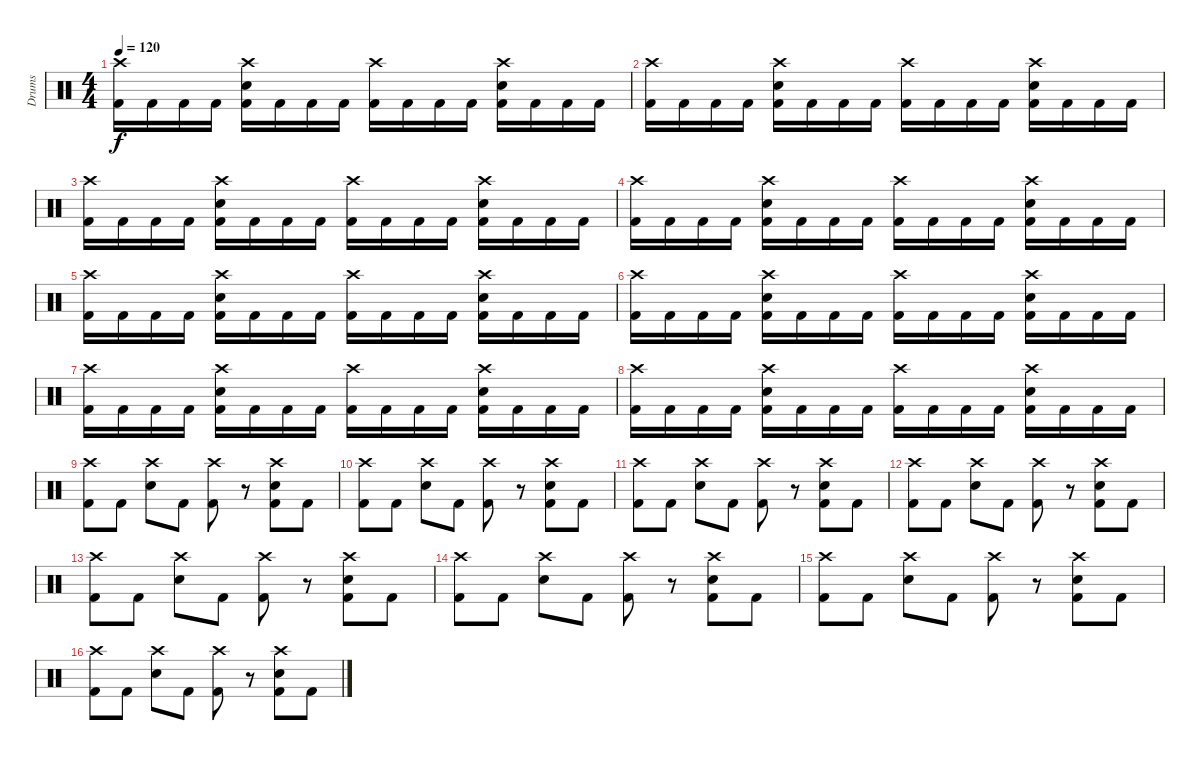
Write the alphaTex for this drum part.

\track ("Drums" "Drums") {instrument percussion}
\staff {score}
\articulation defaults
\ts (4 4)
\tempo 120
\clef neutral
\ks c
("Crash high (hit)" "Kick (hit) 2").16{dy f} "Kick (hit) 2".16 "Kick (hit) 2".16 "Kick (hit) 2".16 ("Crash high (hit)" "Snare (hit) 2" "Kick (hit) 2").16 "Kick (hit) 2".16 "Kick (hit) 2".16 "Kick (hit) 2".16 ("Crash high (hit)" "Kick (hit) 2").16 "Kick (hit) 2".16 "Kick (hit) 2".16 "Kick (hit) 2".16 ("Crash high (hit)" "Snare (hit) 2" "Kick (hit) 2").16 "Kick (hit) 2".16 "Kick (hit) 2".16 "Kick (hit) 2".16 |
("Crash high (hit)" "Kick (hit) 2").16 "Kick (hit) 2".16 "Kick (hit) 2".16 "Kick (hit) 2".16 ("Crash high (hit)" "Snare (hit) 2" "Kick (hit) 2").16 "Kick (hit) 2".16 "Kick (hit) 2".16 "Kick (hit) 2".16 ("Crash high (hit)" "Kick (hit) 2").16 "Kick (hit) 2".16 "Kick (hit) 2".16 "Kick (hit) 2".16 ("Crash high (hit)" "Snare (hit) 2" "Kick (hit) 2").16 "Kick (hit) 2".16 "Kick (hit) 2".16 "Kick (hit) 2".16 |
("Crash high (hit)" "Kick (hit) 2").16 "Kick (hit) 2".16 "Kick (hit) 2".16 "Kick (hit) 2".16 ("Crash high (hit)" "Snare (hit) 2" "Kick (hit) 2").16 "Kick (hit) 2".16 "Kick (hit) 2".16 "Kick (hit) 2".16 ("Crash high (hit)" "Kick (hit) 2").16 "Kick (hit) 2".16 "Kick (hit) 2".16 "Kick (hit) 2".16 ("Crash high (hit)" "Snare (hit) 2" "Kick (hit) 2").16 "Kick (hit) 2".16 "Kick (hit) 2".16 "Kick (hit) 2".16 |
("Crash high (hit)" "Kick (hit) 2").16 "Kick (hit) 2".16 "Kick (hit) 2".16 "Kick (hit) 2".16 ("Crash high (hit)" "Snare (hit) 2" "Kick (hit) 2").16 "Kick (hit) 2".16 "Kick (hit) 2".16 "Kick (hit) 2".16 ("Crash high (hit)" "Kick (hit) 2").16 "Kick (hit) 2".16 "Kick (hit) 2".16 "Kick (hit) 2".16 ("Crash high (hit)" "Snare (hit) 2" "Kick (hit) 2").16 "Kick (hit) 2".16 "Kick (hit) 2".16 "Kick (hit) 2".16 |
("Crash high (hit)" "Kick (hit) 2").16 "Kick (hit) 2".16 "Kick (hit) 2".16 "Kick (hit) 2".16 ("Crash high (hit)" "Snare (hit) 2" "Kick (hit) 2").16 "Kick (hit) 2".16 "Kick (hit) 2".16 "Kick (hit) 2".16 ("Crash high (hit)" "Kick (hit) 2").16 "Kick (hit) 2".16 "Kick (hit) 2".16 "Kick (hit) 2".16 ("Crash high (hit)" "Snare (hit) 2" "Kick (hit) 2").16 "Kick (hit) 2".16 "Kick (hit) 2".16 "Kick (hit) 2".16 |
("Crash high (hit)" "Kick (hit) 2").16 "Kick (hit) 2".16 "Kick (hit) 2".16 "Kick (hit) 2".16 ("Crash high (hit)" "Snare (hit) 2" "Kick (hit) 2").16 "Kick (hit) 2".16 "Kick (hit) 2".16 "Kick (hit) 2".16 ("Crash high (hit)" "Kick (hit) 2").16 "Kick (hit) 2".16 "Kick (hit) 2".16 "Kick (hit) 2".16 ("Crash high (hit)" "Snare (hit) 2" "Kick (hit) 2").16 "Kick (hit) 2".16 "Kick (hit) 2".16 "Kick (hit) 2".16 |
("Crash high (hit)" "Kick (hit) 2").16 "Kick (hit) 2".16 "Kick (hit) 2".16 "Kick (hit) 2".16 ("Crash high (hit)" "Snare (hit) 2" "Kick (hit) 2").16 "Kick (hit) 2".16 "Kick (hit) 2".16 "Kick (hit) 2".16 ("Crash high (hit)" "Kick (hit) 2").16 "Kick (hit) 2".16 "Kick (hit) 2".16 "Kick (hit) 2".16 ("Crash high (hit)" "Snare (hit) 2" "Kick (hit) 2").16 "Kick (hit) 2".16 "Kick (hit) 2".16 "Kick (hit) 2".16 |
("Crash high (hit)" "Kick (hit) 2").16 "Kick (hit) 2".16 "Kick (hit) 2".16 "Kick (hit) 2".16 ("Crash high (hit)" "Snare (hit) 2" "Kick (hit) 2").16 "Kick (hit) 2".16 "Kick (hit) 2".16 "Kick (hit) 2".16 ("Crash high (hit)" "Kick (hit) 2").16 "Kick (hit) 2".16 "Kick (hit) 2".16 "Kick (hit) 2".16 ("Crash high (hit)" "Snare (hit) 2" "Kick (hit) 2").16 "Kick (hit) 2".16 "Kick (hit) 2".16 "Kick (hit) 2".16 |
("Crash high (hit)" "Kick (hit) 2").8 "Kick (hit) 2".8 ("Crash high (hit)" "Snare (hit) 2").8 "Kick (hit) 2".8 ("Crash high (hit)" "Kick (hit) 2").8 r.8 ("Crash high (hit)" "Snare (hit) 2" "Kick (hit) 2").8 "Kick (hit) 2".8 |
("Crash high (hit)" "Kick (hit) 2").8 "Kick (hit) 2".8 ("Crash high (hit)" "Snare (hit) 2").8 "Kick (hit) 2".8 ("Crash high (hit)" "Kick (hit) 2").8 r.8 ("Crash high (hit)" "Snare (hit) 2" "Kick (hit) 2").8 "Kick (hit) 2".8 |
("Crash high (hit)" "Kick (hit) 2").8 "Kick (hit) 2".8 ("Crash high (hit)" "Snare (hit) 2").8 "Kick (hit) 2".8 ("Crash high (hit)" "Kick (hit) 2").8 r.8 ("Crash high (hit)" "Snare (hit) 2" "Kick (hit) 2").8 "Kick (hit) 2".8 |
("Crash high (hit)" "Kick (hit) 2").8 "Kick (hit) 2".8 ("Crash high (hit)" "Snare (hit) 2").8 "Kick (hit) 2".8 ("Crash high (hit)" "Kick (hit) 2").8 r.8 ("Crash high (hit)" "Snare (hit) 2" "Kick (hit) 2").8 "Kick (hit) 2".8 |
("Crash high (hit)" "Kick (hit) 2").8 "Kick (hit) 2".8 ("Crash high (hit)" "Snare (hit) 2").8 "Kick (hit) 2".8 ("Crash high (hit)" "Kick (hit) 2").8 r.8 ("Crash high (hit)" "Snare (hit) 2" "Kick (hit) 2").8 "Kick (hit) 2".8 |
("Crash high (hit)" "Kick (hit) 2").8 "Kick (hit) 2".8 ("Crash high (hit)" "Snare (hit) 2").8 "Kick (hit) 2".8 ("Crash high (hit)" "Kick (hit) 2").8 r.8 ("Crash high (hit)" "Snare (hit) 2" "Kick (hit) 2").8 "Kick (hit) 2".8 |
("Crash high (hit)" "Kick (hit) 2").8 "Kick (hit) 2".8 ("Crash high (hit)" "Snare (hit) 2").8 "Kick (hit) 2".8 ("Crash high (hit)" "Kick (hit) 2").8 r.8 ("Crash high (hit)" "Snare (hit) 2" "Kick (hit) 2").8 "Kick (hit) 2".8 |
("Crash high (hit)" "Kick (hit) 2").8 "Kick (hit) 2".8 ("Crash high (hit)" "Snare (hit) 2").8 "Kick (hit) 2".8 ("Crash high (hit)" "Kick (hit) 2").8 r.8 ("Crash high (hit)" "Snare (hit) 2" "Kick (hit) 2").8 "Kick (hit) 2".8
